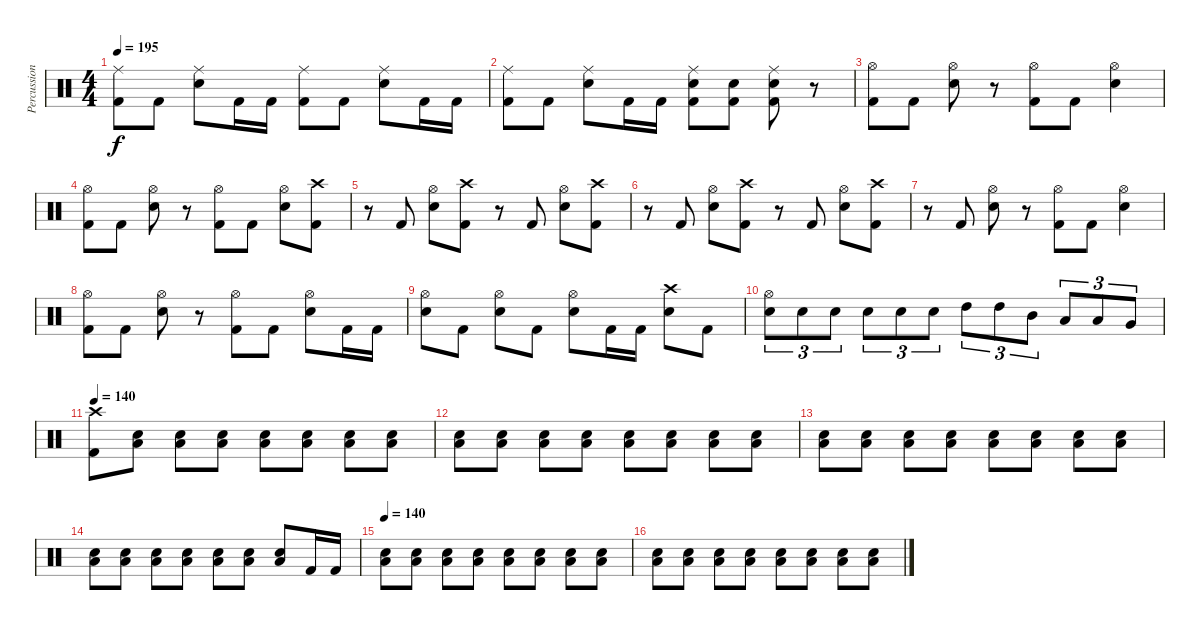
\track ("Percussion" "Percussion") {instrument percussion}
\staff {score}
\articulation defaults
\ts (4 4)
\tempo 195
\clef neutral
\ks c
("Ride (middle)" "Kick (hit) 2").8{dy f} "Kick (hit) 2".8 ("Ride (middle)" "Electric Snare (hit)").8 "Kick (hit) 2".16 "Kick (hit) 2".16 ("Ride (middle)" "Kick (hit) 2").8 "Kick (hit) 2".8 ("Ride (middle)" "Electric Snare (hit)").8 "Kick (hit) 2".16 "Kick (hit) 2".16 |
("Ride (middle)" "Kick (hit) 2").8 "Kick (hit) 2".8 ("Ride (middle)" "Electric Snare (hit)").8 "Kick (hit) 2".16 "Kick (hit) 2".16 ("Ride (middle)" "Electric Snare (hit)" "Kick (hit) 2").8 ("Electric Snare (hit)" "Kick (hit) 2").8 ("Ride (middle)" "Electric Snare (hit)" "Kick (hit) 2").8 r.8 |
("Hi-Hat (open)" "Kick (hit) 2").8 "Kick (hit) 2".8 ("Hi-Hat (open)" "Electric Snare (hit)").8 r.8 ("Hi-Hat (open)" "Kick (hit) 2").8 "Kick (hit) 2".8 ("Hi-Hat (open)" "Electric Snare (hit)").4 |
("Hi-Hat (open)" "Kick (hit) 2").8 "Kick (hit) 2".8 ("Hi-Hat (open)" "Electric Snare (hit)").8 r.8 ("Hi-Hat (open)" "Kick (hit) 2").8 "Kick (hit) 2".8 ("Hi-Hat (open)" "Electric Snare (hit)").8 ("Crash high (hit)" "Kick (hit) 2").8 |
r.8 "Kick (hit) 2".8 ("Hi-Hat (open)" "Electric Snare (hit)").8 ("Crash high (hit)" "Kick (hit) 2").8 r.8 "Kick (hit) 2".8 ("Hi-Hat (open)" "Electric Snare (hit)").8 ("Crash high (hit)" "Kick (hit) 2").8 |
r.8 "Kick (hit) 2".8 ("Hi-Hat (open)" "Electric Snare (hit)").8 ("Crash high (hit)" "Kick (hit) 2").8 r.8 "Kick (hit) 2".8 ("Hi-Hat (open)" "Electric Snare (hit)").8 ("Crash high (hit)" "Kick (hit) 2").8 |
r.8 "Kick (hit) 2".8 ("Hi-Hat (open)" "Electric Snare (hit)").8 r.8 ("Hi-Hat (open)" "Kick (hit) 2").8 "Kick (hit) 2".8 ("Hi-Hat (open)" "Electric Snare (hit)").4 |
("Hi-Hat (open)" "Kick (hit) 2").8 "Kick (hit) 2".8 ("Hi-Hat (open)" "Electric Snare (hit)").8 r.8 ("Hi-Hat (open)" "Kick (hit) 2").8 "Kick (hit) 2".8 ("Hi-Hat (open)" "Electric Snare (hit)").8 "Kick (hit) 2".16 "Kick (hit) 2".16 |
("Hi-Hat (open)" "Electric Snare (hit)").8 "Kick (hit) 2".8 ("Hi-Hat (open)" "Electric Snare (hit)").8 "Kick (hit) 2".8 ("Hi-Hat (open)" "Electric Snare (hit)").8 "Kick (hit) 2".16 "Kick (hit) 2".16 ("Crash high (hit)" "Electric Snare (hit)").8 "Kick (hit) 2".8 |
("Hi-Hat (open)" "Electric Snare (hit)").8{tu (3 2)} "Electric Snare (hit)".8{tu (3 2)} "Electric Snare (hit)".8{tu (3 2)} "Electric Snare (hit)".8{tu (3 2)} "Electric Snare (hit)".8{tu (3 2)} "Electric Snare (hit)".8{tu (3 2)} "High Tom (hit)".8{tu (3 2)} "High Tom (hit)".8{tu (3 2)} "Mid Tom (hit)".8{tu (3 2)} "Low Tom (hit)".8{tu (3 2)} "Low Tom (hit)".8{tu (3 2)} "Very Low Tom (hit)".8{tu (3 2)} |
\tempo 140
("Crash high (hit)" "Kick (hit) 2").8 ("Low Tom (hit)" "Electric Snare (hit)").8{volume 6} ("Low Tom (hit)" "Electric Snare (hit)").8{volume 7} ("Low Tom (hit)" "Electric Snare (hit)").8{volume 8} ("Low Tom (hit)" "Electric Snare (hit)").8{volume 9} ("Low Tom (hit)" "Electric Snare (hit)").8{volume 10} ("Low Tom (hit)" "Electric Snare (hit)").8{volume 11} ("Low Tom (hit)" "Electric Snare (hit)").8{volume 12} |
("Low Tom (hit)" "Electric Snare (hit)").8{volume 13} ("Low Tom (hit)" "Electric Snare (hit)").8 ("Low Tom (hit)" "Electric Snare (hit)").8 ("Low Tom (hit)" "Electric Snare (hit)").8 ("Low Tom (hit)" "Electric Snare (hit)").8 ("Low Tom (hit)" "Electric Snare (hit)").8 ("Low Tom (hit)" "Electric Snare (hit)").8 ("Low Tom (hit)" "Electric Snare (hit)").8 |
("Low Tom (hit)" "Electric Snare (hit)").8 ("Low Tom (hit)" "Electric Snare (hit)").8 ("Low Tom (hit)" "Electric Snare (hit)").8 ("Low Tom (hit)" "Electric Snare (hit)").8 ("Low Tom (hit)" "Electric Snare (hit)").8 ("Low Tom (hit)" "Electric Snare (hit)").8 ("Low Tom (hit)" "Electric Snare (hit)").8 ("Low Tom (hit)" "Electric Snare (hit)").8 |
("Low Tom (hit)" "Electric Snare (hit)").8 ("Low Tom (hit)" "Electric Snare (hit)").8 ("Low Tom (hit)" "Electric Snare (hit)").8 ("Low Tom (hit)" "Electric Snare (hit)").8 ("Low Tom (hit)" "Electric Snare (hit)").8 ("Low Tom (hit)" "Electric Snare (hit)").8 ("Low Tom (hit)" "Electric Snare (hit)").8 "Kick (hit) 2".16 "Kick (hit) 2".16 |
\tempo 140
("Low Tom (hit)" "Electric Snare (hit)").8 ("Low Tom (hit)" "Electric Snare (hit)").8 ("Low Tom (hit)" "Electric Snare (hit)").8 ("Low Tom (hit)" "Electric Snare (hit)").8 ("Low Tom (hit)" "Electric Snare (hit)").8 ("Low Tom (hit)" "Electric Snare (hit)").8 ("Low Tom (hit)" "Electric Snare (hit)").8 ("Low Tom (hit)" "Electric Snare (hit)").8 |
("Low Tom (hit)" "Electric Snare (hit)").8 ("Low Tom (hit)" "Electric Snare (hit)").8 ("Low Tom (hit)" "Electric Snare (hit)").8 ("Low Tom (hit)" "Electric Snare (hit)").8 ("Low Tom (hit)" "Electric Snare (hit)").8 ("Low Tom (hit)" "Electric Snare (hit)").8 ("Low Tom (hit)" "Electric Snare (hit)").8 ("Low Tom (hit)" "Electric Snare (hit)").8
